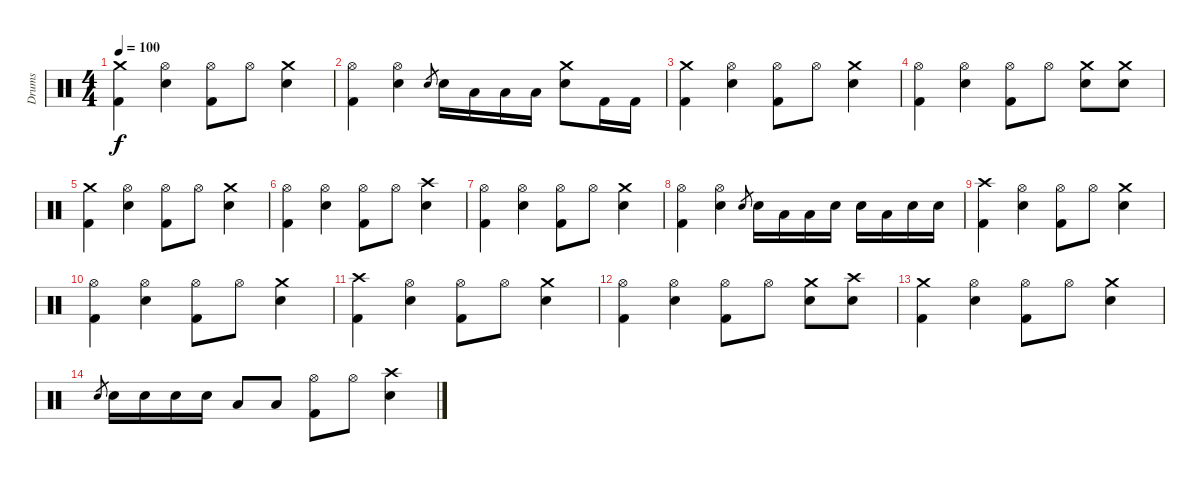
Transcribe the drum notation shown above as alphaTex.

\track ("Drums" "Drums") {instrument percussion}
\staff {score}
\articulation defaults
\ts (4 4)
\tempo 100
\clef neutral
\ks c
("Crash medium (hit)" "Kick (hit) 2").4{dy f} ("Hi-Hat (open)" "Snare (hit) 2").4 ("Hi-Hat (open)" "Kick (hit) 2").8 "Hi-Hat (open)".8 ("Crash medium (hit)" "Snare (hit) 2").4 |
("Hi-Hat (open)" "Kick (hit) 2").4 ("Hi-Hat (open)" "Snare (hit) 2").4 "Electric Snare (hit)".8{gr} "Electric Snare (hit)".16 "Low Floor Tom (hit)".16 "Low Floor Tom (hit)".16 "Low Floor Tom (hit)".16 ("Crash medium (hit)" "Electric Snare (hit)").8 "Kick (hit) 2".16 "Kick (hit) 2".16 |
("Crash medium (hit)" "Kick (hit) 2").4 ("Hi-Hat (open)" "Snare (hit) 2").4 ("Hi-Hat (open)" "Kick (hit) 2").8 "Hi-Hat (open)".8 ("Crash medium (hit)" "Snare (hit) 2").4 |
("Hi-Hat (open)" "Kick (hit) 2").4 ("Hi-Hat (open)" "Snare (hit) 2").4 ("Hi-Hat (open)" "Kick (hit) 2").8 "Hi-Hat (open)".8 ("Crash medium (hit)" "Snare (hit) 2").8 ("Crash medium (hit)" "Snare (hit) 2").8 |
("Crash medium (hit)" "Kick (hit) 2").4 ("Hi-Hat (open)" "Snare (hit) 2").4 ("Hi-Hat (open)" "Kick (hit) 2").8 "Hi-Hat (open)".8 ("Crash medium (hit)" "Snare (hit) 2").4 |
("Hi-Hat (open)" "Kick (hit) 2").4 ("Hi-Hat (open)" "Snare (hit) 2").4 ("Hi-Hat (open)" "Kick (hit) 2").8 "Hi-Hat (open)".8 ("Crash high (hit)" "Snare (hit) 2").4 |
("Hi-Hat (open)" "Kick (hit) 2").4 ("Hi-Hat (open)" "Snare (hit) 2").4 ("Hi-Hat (open)" "Kick (hit) 2").8 "Hi-Hat (open)".8 ("Crash medium (hit)" "Snare (hit) 2").4 |
("Hi-Hat (open)" "Kick (hit) 2").4 ("Hi-Hat (open)" "Snare (hit) 2").4 "Electric Snare (hit)".8{gr} "Electric Snare (hit)".16 "Low Floor Tom (hit)".16 "Low Floor Tom (hit)".16 "Electric Snare (hit)".16 "Electric Snare (hit)".16 "Low Floor Tom (hit)".16 "Electric Snare (hit)".16 "Electric Snare (hit)".16 |
("Crash high (hit)" "Kick (hit) 2").4 ("Hi-Hat (open)" "Snare (hit) 2").4 ("Hi-Hat (open)" "Kick (hit) 2").8 "Hi-Hat (open)".8 ("Crash medium (hit)" "Snare (hit) 2").4 |
("Hi-Hat (open)" "Kick (hit) 2").4 ("Hi-Hat (open)" "Snare (hit) 2").4 ("Hi-Hat (open)" "Kick (hit) 2").8 "Hi-Hat (open)".8 ("Crash medium (hit)" "Snare (hit) 2").4 |
("Crash high (hit)" "Kick (hit) 2").4 ("Hi-Hat (open)" "Snare (hit) 2").4 ("Hi-Hat (open)" "Kick (hit) 2").8 "Hi-Hat (open)".8 ("Crash medium (hit)" "Snare (hit) 2").4 |
("Hi-Hat (open)" "Kick (hit) 2").4 ("Hi-Hat (open)" "Snare (hit) 2").4 ("Hi-Hat (open)" "Kick (hit) 2").8 "Hi-Hat (open)".8 ("Crash medium (hit)" "Snare (hit) 2").8 ("Crash high (hit)" "Snare (hit) 2").8 |
("Crash medium (hit)" "Kick (hit) 2").4 ("Hi-Hat (open)" "Snare (hit) 2").4 ("Hi-Hat (open)" "Kick (hit) 2").8 "Hi-Hat (open)".8 ("Crash medium (hit)" "Snare (hit) 2").4 |
"Electric Snare (hit)".8{gr} "Electric Snare (hit)".16 "Electric Snare (hit)".16 "Electric Snare (hit)".16 "Electric Snare (hit)".16 "Low Tom (hit)".8 "Low Tom (hit)".8 ("Hi-Hat (open)" "Kick (hit) 2").8 "Hi-Hat (open)".8 ("Crash high (hit)" "Snare (hit) 2").4
